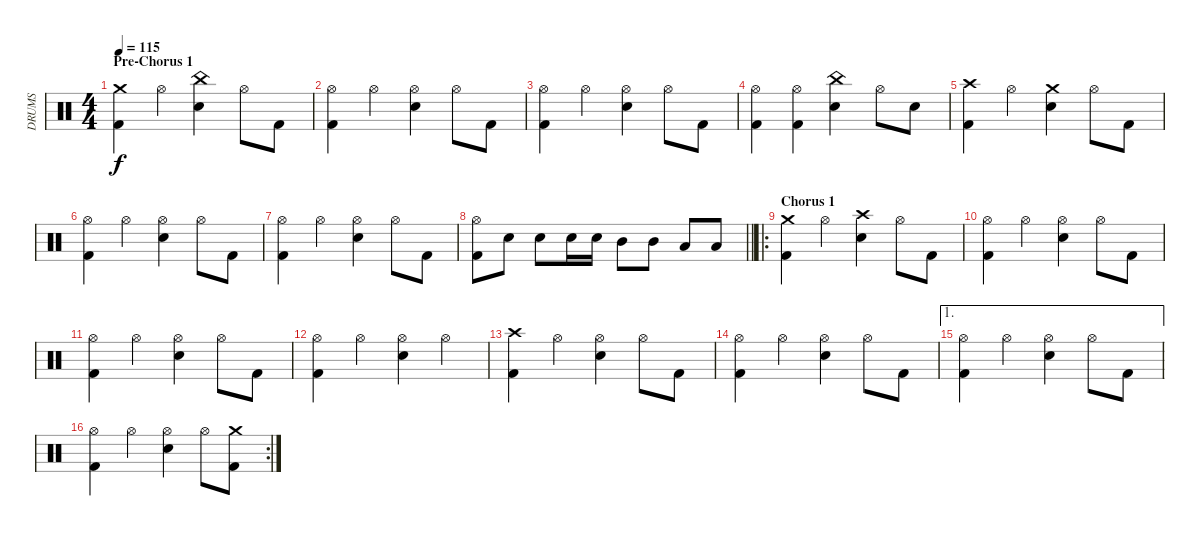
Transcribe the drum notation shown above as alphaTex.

\track ("DRUMS" "DRUMS") {instrument percussion}
\staff {score}
\articulation defaults
\ts (4 4)
\section ("" "Pre-Chorus 1")
\tempo 115
\clef neutral
\ks c
("Crash medium (hit)" "Kick (hit) 2").4{dy f} "Hi-Hat (open)".4 ("China (hit)" "Snare (hit) 2").4 "Hi-Hat (open)".8 "Kick (hit) 2".8 |
("Hi-Hat (open)" "Kick (hit) 2").4 "Hi-Hat (open)".4 ("Hi-Hat (open)" "Snare (hit) 2").4 "Hi-Hat (open)".8 "Kick (hit) 2".8 |
("Hi-Hat (open)" "Kick (hit) 2").4 "Hi-Hat (open)".4 ("Hi-Hat (open)" "Snare (hit) 2").4 "Hi-Hat (open)".8 "Kick (hit) 2".8 |
("Hi-Hat (open)" "Kick (hit) 2").4 ("Hi-Hat (open)" "Kick (hit) 2").4 ("China (hit)" "Snare (hit) 2").4 "Hi-Hat (open)".8 "Snare (hit) 2".8 |
("Crash high (hit)" "Kick (hit) 2").4 "Hi-Hat (open)".4 ("Crash medium (hit)" "Snare (hit) 2").4 "Hi-Hat (open)".8 "Kick (hit) 2".8 |
("Hi-Hat (open)" "Kick (hit) 2").4 "Hi-Hat (open)".4 ("Hi-Hat (open)" "Snare (hit) 2").4 "Hi-Hat (open)".8 "Kick (hit) 2".8 |
("Hi-Hat (open)" "Kick (hit) 2").4 "Hi-Hat (open)".4 ("Hi-Hat (open)" "Snare (hit) 2").4 "Hi-Hat (open)".8 "Kick (hit) 2".8 |
\barLineRight lightlight
("Hi-Hat (open)" "Kick (hit) 2").8 "Snare (hit) 2".8 "Snare (hit) 2".8 "Snare (hit) 2".16 "Snare (hit) 2".16 "Mid Tom (hit)".8 "Mid Tom (hit)".8 "Low Tom (hit)".8 "Low Tom (hit)".8 |
\ro
\section ("" "Chorus 1")
("Crash medium (hit)" "Kick (hit) 2").4 "Hi-Hat (open)".4 ("Crash high (hit)" "Snare (hit) 2").4 "Hi-Hat (open)".8 "Kick (hit) 2".8 |
("Hi-Hat (open)" "Kick (hit) 2").4 "Hi-Hat (open)".4 ("Hi-Hat (open)" "Snare (hit) 2").4 "Hi-Hat (open)".8 "Kick (hit) 2".8 |
("Hi-Hat (open)" "Kick (hit) 2").4 "Hi-Hat (open)".4 ("Hi-Hat (open)" "Snare (hit) 2").4 "Hi-Hat (open)".8 "Kick (hit) 2".8 |
("Hi-Hat (open)" "Kick (hit) 2").4 "Hi-Hat (open)".4 ("Hi-Hat (open)" "Snare (hit) 2").4 "Hi-Hat (open)".4 |
("Crash high (hit)" "Kick (hit) 2").4 "Hi-Hat (open)".4 ("Hi-Hat (open)" "Snare (hit) 2").4 "Hi-Hat (open)".8 "Kick (hit) 2".8 |
("Hi-Hat (open)" "Kick (hit) 2").4 "Hi-Hat (open)".4 ("Hi-Hat (open)" "Snare (hit) 2").4 "Hi-Hat (open)".8 "Kick (hit) 2".8 |
\ae 1
("Hi-Hat (open)" "Kick (hit) 2").4 "Hi-Hat (open)".4 ("Hi-Hat (open)" "Snare (hit) 2").4 "Hi-Hat (open)".8 "Kick (hit) 2".8 |
\rc 2
("Hi-Hat (open)" "Kick (hit) 2").4 "Hi-Hat (open)".4 ("Hi-Hat (open)" "Snare (hit) 2").4 "Hi-Hat (open)".8 ("Crash medium (hit)" "Kick (hit) 2").8
